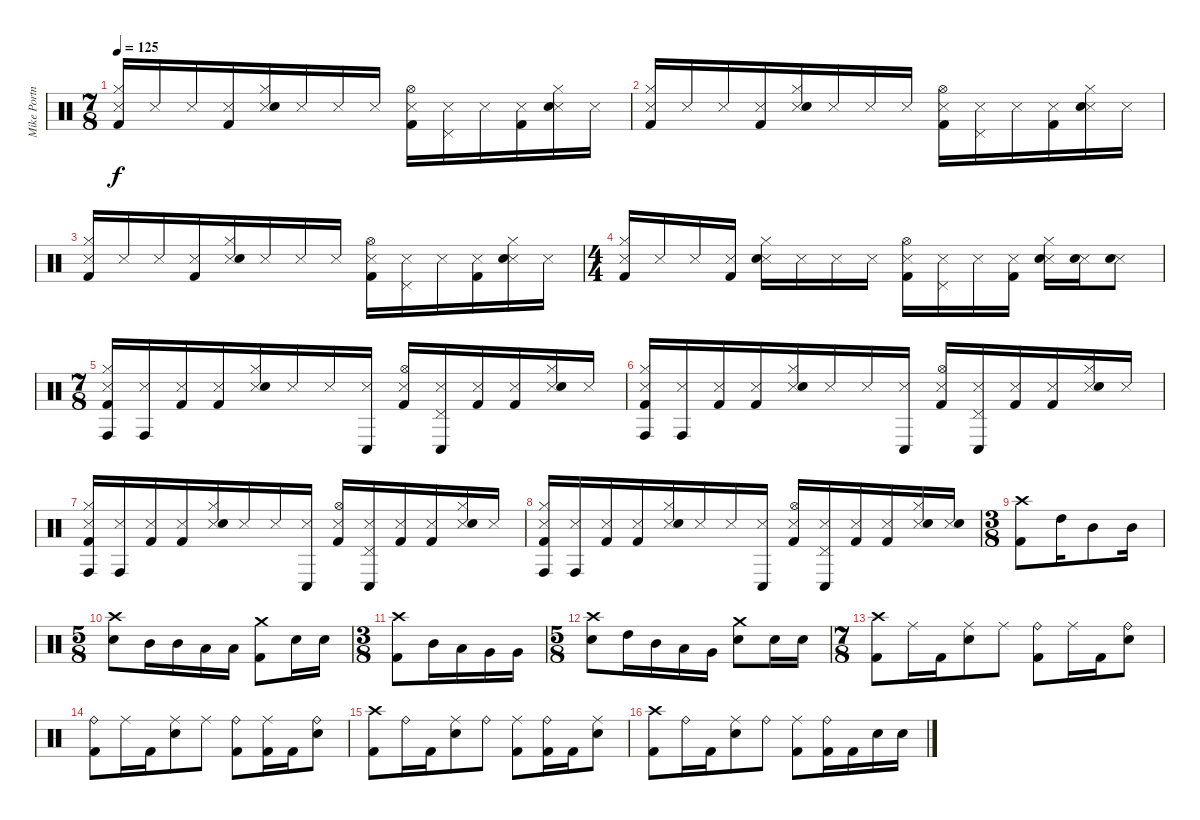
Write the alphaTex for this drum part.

\track ("Mike Portnoy" "Mike Portn") {instrument percussion}
\staff {score}
\articulation defaults
\ts (7 8)
\tempo 125
\clef neutral
\ks c
("Snare (side stick) 3" "Hi-Hat (closed)" "Kick (hit) 2").16{dy f} "Snare (side stick) 3".16 "Snare (side stick) 3".16 ("Snare (side stick) 3" "Kick (hit) 2").16 ("Snare (side stick) 3" "Hi-Hat (closed)" "Snare (hit) 2").16 "Snare (side stick) 3".16 "Snare (side stick) 3".16 "Snare (side stick) 3".16 ("Snare (side stick) 3" "Hi-Hat (open)" "Kick (hit) 2").16 ("Snare (side stick) 3" "Pedal Hi-Hat (hit)").16 "Snare (side stick) 3".16 ("Snare (side stick) 3" "Kick (hit) 2").16 ("Snare (side stick) 3" "Hi-Hat (closed)" "Snare (hit) 2").16 "Snare (side stick) 3".16 |
("Snare (side stick) 3" "Hi-Hat (closed)" "Kick (hit) 2").16 "Snare (side stick) 3".16 "Snare (side stick) 3".16 ("Snare (side stick) 3" "Kick (hit) 2").16 ("Snare (side stick) 3" "Hi-Hat (closed)" "Snare (hit) 2").16 "Snare (side stick) 3".16 "Snare (side stick) 3".16 "Snare (side stick) 3".16 ("Snare (side stick) 3" "Hi-Hat (open)" "Kick (hit) 2").16 ("Snare (side stick) 3" "Pedal Hi-Hat (hit)").16 "Snare (side stick) 3".16 ("Snare (side stick) 3" "Kick (hit) 2").16 ("Snare (side stick) 3" "Hi-Hat (closed)" "Snare (hit) 2").16 "Snare (side stick) 3".16 |
("Snare (side stick) 3" "Hi-Hat (closed)" "Kick (hit) 2").16 "Snare (side stick) 3".16 "Snare (side stick) 3".16 ("Snare (side stick) 3" "Kick (hit) 2").16 ("Snare (side stick) 3" "Hi-Hat (closed)" "Snare (hit) 2").16 "Snare (side stick) 3".16 "Snare (side stick) 3".16 "Snare (side stick) 3".16 ("Snare (side stick) 3" "Hi-Hat (open)" "Kick (hit) 2").16 ("Snare (side stick) 3" "Pedal Hi-Hat (hit)").16 "Snare (side stick) 3".16 ("Snare (side stick) 3" "Kick (hit) 2").16 ("Snare (side stick) 3" "Hi-Hat (closed)" "Snare (hit) 2").16 "Snare (side stick) 3".16 |
\ts (4 4)
("Snare (side stick) 3" "Hi-Hat (closed)" "Kick (hit) 2").16 "Snare (side stick) 3".16 "Snare (side stick) 3".16 ("Snare (side stick) 3" "Kick (hit) 2").16 ("Snare (side stick) 3" "Hi-Hat (closed)" "Snare (hit) 2").16 "Snare (side stick) 3".16 "Snare (side stick) 3".16 "Snare (side stick) 3".16 ("Snare (side stick) 3" "Hi-Hat (open)" "Kick (hit) 2").16 ("Snare (side stick) 3" "Pedal Hi-Hat (hit)").16 "Snare (side stick) 3".16 ("Snare (side stick) 3" "Kick (hit) 2").16 ("Snare (side stick) 3" "Hi-Hat (closed)" "Snare (hit) 2").16 ("Snare (side stick) 3" "Snare (hit) 2").16 ("Snare (side stick) 3" "Snare (hit) 2").8 |
\ts (7 8)
("Conga high (hit)" "Snare (side stick) 3" "Hi-Hat (closed)" "Kick (hit) 2").16 ("Conga high (hit)" "Snare (side stick) 3").16 ("Snare (side stick) 3" "Kick (hit) 2").16 ("Snare (side stick) 3" "Kick (hit) 2").16 ("Snare (side stick) 3" "Hi-Hat (closed)" "Snare (hit) 2").16 "Snare (side stick) 3".16 "Snare (side stick) 3".16 ("Conga low (hit)" "Snare (side stick) 3").16 ("Snare (side stick) 3" "Hi-Hat (open)" "Kick (hit) 2").16 ("Conga low (hit)" "Snare (side stick) 3" "Pedal Hi-Hat (hit)").16 ("Snare (side stick) 3" "Kick (hit) 2").16 ("Snare (side stick) 3" "Kick (hit) 2").16 ("Snare (side stick) 3" "Hi-Hat (closed)" "Snare (hit) 2").16 "Snare (side stick) 3".16 |
("Conga high (hit)" "Snare (side stick) 3" "Hi-Hat (closed)" "Kick (hit) 2").16 ("Conga high (hit)" "Snare (side stick) 3").16 ("Snare (side stick) 3" "Kick (hit) 2").16 ("Snare (side stick) 3" "Kick (hit) 2").16 ("Snare (side stick) 3" "Hi-Hat (closed)" "Snare (hit) 2").16 "Snare (side stick) 3".16 "Snare (side stick) 3".16 ("Conga low (hit)" "Snare (side stick) 3").16 ("Snare (side stick) 3" "Hi-Hat (open)" "Kick (hit) 2").16 ("Conga low (hit)" "Snare (side stick) 3" "Pedal Hi-Hat (hit)").16 ("Snare (side stick) 3" "Kick (hit) 2").16 ("Snare (side stick) 3" "Kick (hit) 2").16 ("Snare (side stick) 3" "Hi-Hat (closed)" "Snare (hit) 2").16 "Snare (side stick) 3".16 |
("Conga high (hit)" "Snare (side stick) 3" "Hi-Hat (closed)" "Kick (hit) 2").16 ("Conga high (hit)" "Snare (side stick) 3").16 ("Snare (side stick) 3" "Kick (hit) 2").16 ("Snare (side stick) 3" "Kick (hit) 2").16 ("Snare (side stick) 3" "Hi-Hat (closed)" "Snare (hit) 2").16 "Snare (side stick) 3".16 "Snare (side stick) 3".16 ("Conga low (hit)" "Snare (side stick) 3").16 ("Snare (side stick) 3" "Hi-Hat (open)" "Kick (hit) 2").16 ("Conga low (hit)" "Snare (side stick) 3" "Pedal Hi-Hat (hit)").16 ("Snare (side stick) 3" "Kick (hit) 2").16 ("Snare (side stick) 3" "Kick (hit) 2").16 ("Snare (side stick) 3" "Hi-Hat (closed)" "Snare (hit) 2").16 "Snare (side stick) 3".16 |
("Conga high (hit)" "Snare (side stick) 3" "Hi-Hat (closed)" "Kick (hit) 2").16 ("Conga high (hit)" "Snare (side stick) 3").16 ("Snare (side stick) 3" "Kick (hit) 2").16 ("Snare (side stick) 3" "Kick (hit) 2").16 ("Snare (side stick) 3" "Hi-Hat (closed)" "Snare (hit) 2").16 "Snare (side stick) 3".16 "Snare (side stick) 3".16 ("Conga low (hit)" "Snare (side stick) 3").16 ("Snare (side stick) 3" "Hi-Hat (open)" "Kick (hit) 2").16 ("Conga low (hit)" "Snare (side stick) 3" "Pedal Hi-Hat (hit)").16 ("Snare (side stick) 3" "Kick (hit) 2").16 ("Snare (side stick) 3" "Kick (hit) 2").16 ("Snare (side stick) 3" "Hi-Hat (closed)" "Snare (hit) 2").16 ("Snare (side stick) 3" "Snare (hit) 2").16 |
\ts (3 8)
("Crash high (hit)" "Kick (hit) 2").8 "High Tom (hit)".16 "Mid Tom (hit)".8 "Mid Tom (hit)".16 |
\ts (5 8)
("Crash high (hit)" "Snare (hit) 2").8 "Mid Tom (hit)".16 "Mid Tom (hit)".16 "Low Tom (hit)".16 "Low Tom (hit)".16 ("Crash medium (hit)" "Kick (hit) 2").8 "Snare (hit) 2".16 "Snare (hit) 2".16 |
\ts (3 8)
("Crash high (hit)" "Kick (hit) 2").8 "Mid Tom (hit)".16 "Low Tom (hit)".16 "Very Low Tom (hit)".16 "Very Low Tom (hit)".16 |
\ts (5 8)
("Crash high (hit)" "Snare (hit) 2").8 "High Tom (hit)".16 "Mid Tom (hit)".16 "Low Tom (hit)".16 "Very Low Tom (hit)".16 ("Crash medium (hit)" "Snare (hit) 2").8 "Snare (hit) 2".16 "Snare (hit) 2".16 |
\ts (7 8)
("Crash high (hit)" "Kick (hit) 2").8 "Ride (middle)".16 "Kick (hit) 2".16 ("Ride (middle)" "Snare (hit) 2").8 "Ride (middle)".8 ("Ride (bell)" "Kick (hit) 2").8 "Ride (middle)".16 "Kick (hit) 2".16 ("Ride (bell)" "Snare (hit) 2").8 |
("Ride (bell)" "Kick (hit) 2").8 "Ride (middle)".16 "Kick (hit) 2".16 ("Ride (middle)" "Snare (hit) 2").8 "Ride (middle)".8 ("Ride (bell)" "Kick (hit) 2").8 ("Ride (middle)" "Kick (hit) 2").16 "Kick (hit) 2".16 ("Ride (bell)" "Snare (hit) 2").8 |
("Crash high (hit)" "Kick (hit) 2").8 "Ride (bell)".16 "Kick (hit) 2".16 ("Ride (middle)" "Snare (hit) 2").8 "Ride (bell)".8 ("Ride (middle)" "Kick (hit) 2").8 ("Ride (bell)" "Kick (hit) 2").16 "Kick (hit) 2".16 ("Ride (middle)" "Snare (hit) 2").8 |
("Crash high (hit)" "Kick (hit) 2").8 "Ride (bell)".16 "Kick (hit) 2".16 ("Ride (middle)" "Snare (hit) 2").8 "Ride (bell)".8 ("Ride (middle)" "Kick (hit) 2").8 ("Ride (bell)" "Kick (hit) 2").16 "Kick (hit) 2".16 "Snare (hit) 2".16 "Snare (hit) 2".16
